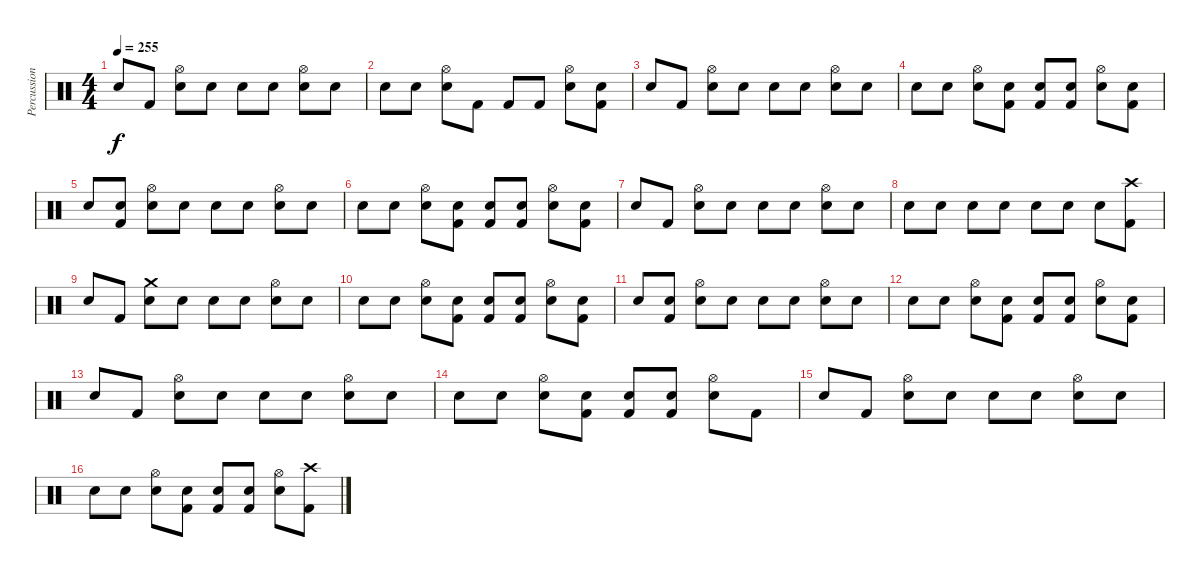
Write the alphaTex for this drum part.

\track ("Percussion" "Percussion") {instrument percussion}
\staff {score}
\articulation defaults
\ts (4 4)
\tempo 255
\clef neutral
\ks c "Snare (hit)".8{dy f} "Kick (hit) 2".8
("Snare (hit) 2" "Hi-Hat (open)").8 "Snare (hit)".8 "Snare (hit)".8 "Snare (hit)".8 ("Snare (hit) 2" "Hi-Hat (open)").8 "Snare (hit)".8 |
"Snare (hit)".8 "Snare (hit)".8 ("Snare (hit) 2" "Hi-Hat (open)").8 "Kick (hit) 2".8 "Kick (hit) 2".8 "Kick (hit) 2".8 ("Snare (hit) 2" "Hi-Hat (open)").8 ("Kick (hit) 2" "Snare (hit)").8 |
"Snare (hit)".8 "Kick (hit) 2".8 ("Snare (hit) 2" "Hi-Hat (open)").8 "Snare (hit)".8 "Snare (hit)".8 "Snare (hit)".8 ("Snare (hit) 2" "Hi-Hat (open)").8 "Snare (hit)".8 |
"Snare (hit)".8 "Snare (hit)".8 ("Snare (hit) 2" "Hi-Hat (open)").8 ("Kick (hit) 2" "Snare (hit)").8 ("Kick (hit) 2" "Snare (hit)").8 ("Kick (hit) 2" "Snare (hit)").8 ("Snare (hit) 2" "Hi-Hat (open)").8 ("Kick (hit) 2" "Snare (hit)").8 |
"Snare (hit)".8 ("Kick (hit) 2" "Snare (hit)").8 ("Snare (hit) 2" "Hi-Hat (open)").8 "Snare (hit)".8 "Snare (hit)".8 "Snare (hit)".8 ("Snare (hit) 2" "Hi-Hat (open)").8 "Snare (hit)".8 |
"Snare (hit)".8 "Snare (hit)".8 ("Snare (hit) 2" "Hi-Hat (open)").8 ("Kick (hit) 2" "Snare (hit)").8 ("Kick (hit) 2" "Snare (hit)").8 ("Kick (hit) 2" "Snare (hit)").8 ("Snare (hit) 2" "Hi-Hat (open)").8 ("Kick (hit) 2" "Snare (hit)").8 |
"Snare (hit)".8 "Kick (hit) 2".8 ("Snare (hit) 2" "Hi-Hat (open)").8 "Snare (hit) 2".8 "Snare (hit) 2".8 "Snare (hit) 2".8 ("Snare (hit) 2" "Hi-Hat (open)").8 "Snare (hit) 2".8 |
"Snare (hit) 2".8 "Snare (hit) 2".8 "Snare (hit) 2".8 "Snare (hit) 2".8 "Snare (hit) 2".8 "Snare (hit) 2".8 "Snare (hit) 2".8 ("Kick (hit) 2" "Crash high (hit)").8 |
"Snare (hit)".8 "Kick (hit) 2".8 ("Snare (hit) 2" "Crash medium (hit)").8 "Snare (hit)".8 "Snare (hit)".8 "Snare (hit)".8 ("Snare (hit) 2" "Hi-Hat (open)").8 "Snare (hit)".8 |
"Snare (hit)".8 "Snare (hit)".8 ("Snare (hit) 2" "Hi-Hat (open)").8 ("Kick (hit) 2" "Snare (hit)").8 ("Kick (hit) 2" "Snare (hit)").8 ("Kick (hit) 2" "Snare (hit)").8 ("Snare (hit) 2" "Hi-Hat (open)").8 ("Kick (hit) 2" "Snare (hit)").8 |
"Snare (hit)".8 ("Kick (hit) 2" "Snare (hit)").8 ("Snare (hit) 2" "Hi-Hat (open)").8 "Snare (hit)".8 "Snare (hit)".8 "Snare (hit)".8 ("Snare (hit) 2" "Hi-Hat (open)").8 "Snare (hit)".8 |
"Snare (hit)".8 "Snare (hit)".8 ("Snare (hit) 2" "Hi-Hat (open)").8 ("Kick (hit) 2" "Snare (hit)").8 ("Kick (hit) 2" "Snare (hit)").8 ("Kick (hit) 2" "Snare (hit)").8 ("Snare (hit) 2" "Hi-Hat (open)").8 ("Kick (hit) 2" "Snare (hit)").8 |
"Snare (hit)".8 "Kick (hit) 2".8 ("Snare (hit) 2" "Hi-Hat (open)").8 "Snare (hit)".8 "Snare (hit)".8 "Snare (hit)".8 ("Snare (hit) 2" "Hi-Hat (open)").8 "Snare (hit)".8 |
"Snare (hit)".8 "Snare (hit)".8 ("Snare (hit) 2" "Hi-Hat (open)").8 ("Kick (hit) 2" "Snare (hit)").8 ("Kick (hit) 2" "Snare (hit)").8 ("Kick (hit) 2" "Snare (hit)").8 ("Snare (hit) 2" "Hi-Hat (open)").8 "Kick (hit) 2".8 |
"Snare (hit)".8 "Kick (hit) 2".8 ("Snare (hit) 2" "Hi-Hat (open)").8 "Snare (hit)".8 "Snare (hit)".8 "Snare (hit)".8 ("Snare (hit) 2" "Hi-Hat (open)").8 "Snare (hit)".8 |
"Snare (hit)".8 "Snare (hit)".8 ("Snare (hit) 2" "Hi-Hat (open)").8 ("Kick (hit) 2" "Snare (hit)").8 ("Kick (hit) 2" "Snare (hit)").8 ("Kick (hit) 2" "Snare (hit)").8 ("Snare (hit) 2" "Hi-Hat (open)").8 ("Kick (hit) 2" "Crash high (hit)").8
